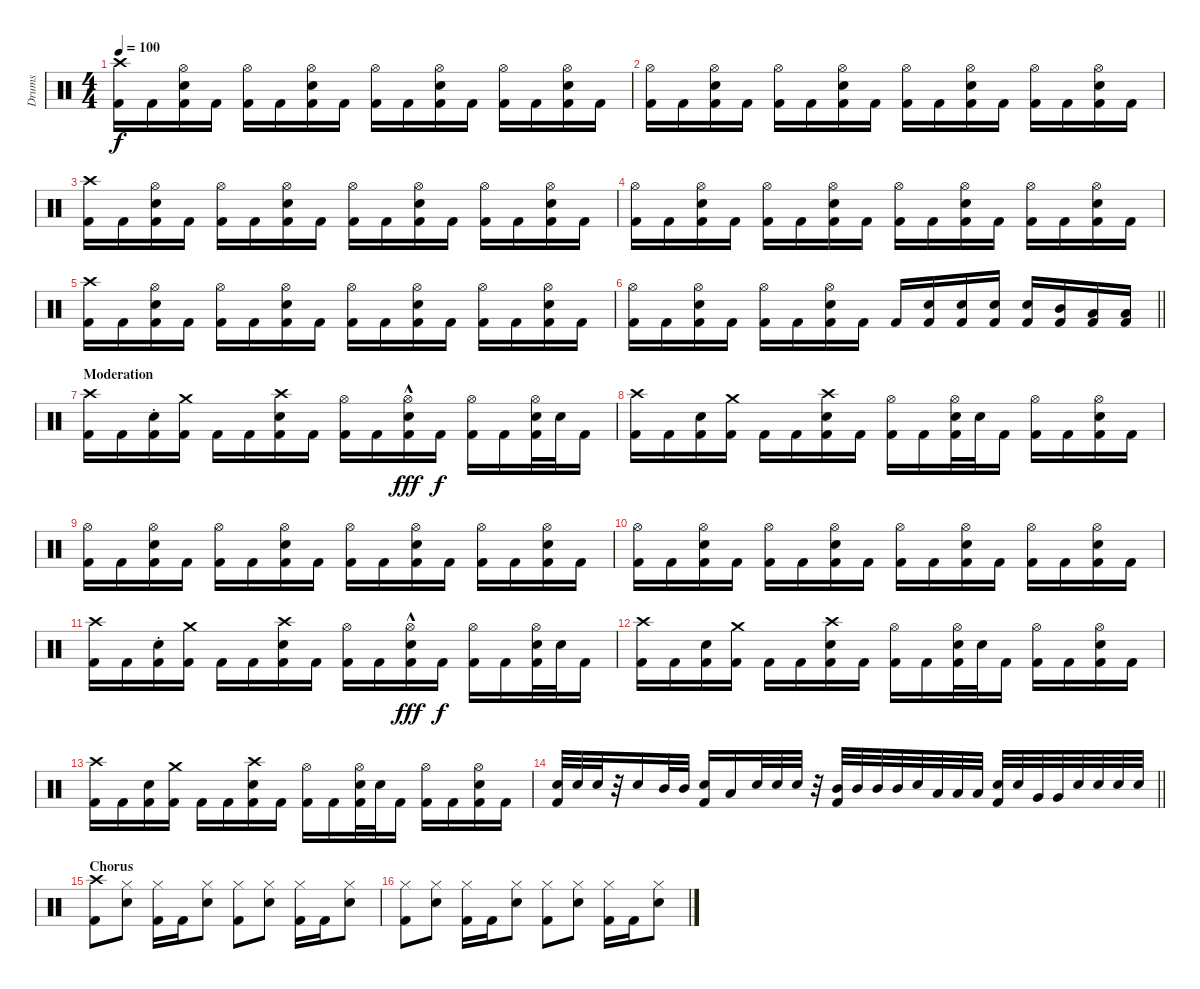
\track ("Drums" "Drums") {instrument percussion}
\staff {score}
\articulation defaults
\ts (4 4)
\tempo 100
\clef neutral
\ks c
("Crash high (hit)" "Kick (hit) 2").16{dy f} "Kick (hit) 2".16 ("Hi-Hat (open)" "Snare (hit) 2" "Kick (hit) 2").16 "Kick (hit) 2".16 ("Hi-Hat (open)" "Kick (hit) 2").16 "Kick (hit) 2".16 ("Hi-Hat (open)" "Snare (hit) 2" "Kick (hit) 2").16 "Kick (hit) 2".16 ("Hi-Hat (open)" "Kick (hit) 2").16 "Kick (hit) 2".16 ("Hi-Hat (open)" "Snare (hit) 2" "Kick (hit) 2").16 "Kick (hit) 2".16 ("Hi-Hat (open)" "Kick (hit) 2").16 "Kick (hit) 2".16 ("Hi-Hat (open)" "Snare (hit) 2" "Kick (hit) 2").16 "Kick (hit) 2".16 |
("Hi-Hat (open)" "Kick (hit) 2").16 "Kick (hit) 2".16 ("Hi-Hat (open)" "Snare (hit) 2" "Kick (hit) 2").16 "Kick (hit) 2".16 ("Hi-Hat (open)" "Kick (hit) 2").16 "Kick (hit) 2".16 ("Hi-Hat (open)" "Snare (hit) 2" "Kick (hit) 2").16 "Kick (hit) 2".16 ("Hi-Hat (open)" "Kick (hit) 2").16 "Kick (hit) 2".16 ("Hi-Hat (open)" "Snare (hit) 2" "Kick (hit) 2").16 "Kick (hit) 2".16 ("Hi-Hat (open)" "Kick (hit) 2").16 "Kick (hit) 2".16 ("Hi-Hat (open)" "Snare (hit) 2" "Kick (hit) 2").16 "Kick (hit) 2".16 |
("Crash high (hit)" "Kick (hit) 2").16 "Kick (hit) 2".16 ("Hi-Hat (open)" "Snare (hit) 2" "Kick (hit) 2").16 "Kick (hit) 2".16 ("Hi-Hat (open)" "Kick (hit) 2").16 "Kick (hit) 2".16 ("Hi-Hat (open)" "Snare (hit) 2" "Kick (hit) 2").16 "Kick (hit) 2".16 ("Hi-Hat (open)" "Kick (hit) 2").16 "Kick (hit) 2".16 ("Hi-Hat (open)" "Snare (hit) 2" "Kick (hit) 2").16 "Kick (hit) 2".16 ("Hi-Hat (open)" "Kick (hit) 2").16 "Kick (hit) 2".16 ("Hi-Hat (open)" "Snare (hit) 2" "Kick (hit) 2").16 "Kick (hit) 2".16 |
("Hi-Hat (open)" "Kick (hit) 2").16 "Kick (hit) 2".16 ("Hi-Hat (open)" "Snare (hit) 2" "Kick (hit) 2").16 "Kick (hit) 2".16 ("Hi-Hat (open)" "Kick (hit) 2").16 "Kick (hit) 2".16 ("Hi-Hat (open)" "Snare (hit) 2" "Kick (hit) 2").16 "Kick (hit) 2".16 ("Hi-Hat (open)" "Kick (hit) 2").16 "Kick (hit) 2".16 ("Hi-Hat (open)" "Snare (hit) 2" "Kick (hit) 2").16 "Kick (hit) 2".16 ("Hi-Hat (open)" "Kick (hit) 2").16 "Kick (hit) 2".16 ("Hi-Hat (open)" "Snare (hit) 2" "Kick (hit) 2").16 "Kick (hit) 2".16 |
("Crash high (hit)" "Kick (hit) 2").16 "Kick (hit) 2".16 ("Hi-Hat (open)" "Snare (hit) 2" "Kick (hit) 2").16 "Kick (hit) 2".16 ("Hi-Hat (open)" "Kick (hit) 2").16 "Kick (hit) 2".16 ("Hi-Hat (open)" "Snare (hit) 2" "Kick (hit) 2").16 "Kick (hit) 2".16 ("Hi-Hat (open)" "Kick (hit) 2").16 "Kick (hit) 2".16 ("Hi-Hat (open)" "Snare (hit) 2" "Kick (hit) 2").16 "Kick (hit) 2".16 ("Hi-Hat (open)" "Kick (hit) 2").16 "Kick (hit) 2".16 ("Hi-Hat (open)" "Snare (hit) 2" "Kick (hit) 2").16 "Kick (hit) 2".16 |
\barLineRight lightlight
("Hi-Hat (open)" "Kick (hit) 2").16 "Kick (hit) 2".16 ("Hi-Hat (open)" "Snare (hit) 2" "Kick (hit) 2").16 "Kick (hit) 2".16 ("Hi-Hat (open)" "Kick (hit) 2").16 "Kick (hit) 2".16 ("Hi-Hat (open)" "Snare (hit) 2" "Kick (hit) 2").16 "Kick (hit) 2".16 "Kick (hit) 2".16 ("Snare (hit) 2" "Kick (hit) 2").16 ("Snare (hit) 2" "Kick (hit) 2").16 ("Snare (hit) 2" "Kick (hit) 2").16 ("Snare (hit) 2" "Kick (hit) 2").16 ("Kick (hit) 2" "Mid Tom (hit)").16 ("Kick (hit) 2" "Low Tom (hit)").16 ("Kick (hit) 2" "Low Tom (hit)").16 |
\section ("" "Moderation")
("Crash high (hit)" "Kick (hit) 2").16 "Kick (hit) 2".16 ("Snare (hit) 2"{st} "Kick (hit) 2").16 ("Crash medium (hit)" "Kick (hit) 2").16 "Kick (hit) 2".16 "Kick (hit) 2".16 ("Crash high (hit)" "Snare (hit) 2" "Kick (hit) 2").16 "Kick (hit) 2".16 ("Hi-Hat (open)" "Kick (hit) 2").16 "Kick (hit) 2".16 ("Hi-Hat (open)" "Snare (hit) 2"{hac} "Kick (hit) 2").16{dy fff} "Kick (hit) 2".16{dy f} ("Hi-Hat (open)" "Kick (hit) 2").16 "Kick (hit) 2".16 ("Hi-Hat (open)" "Snare (hit) 2" "Kick (hit) 2").32 "Snare (hit) 2".32 "Kick (hit) 2".16 |
("Crash high (hit)" "Kick (hit) 2").16 "Kick (hit) 2".16 ("Snare (hit) 2" "Kick (hit) 2").16 ("Crash medium (hit)" "Kick (hit) 2").16 "Kick (hit) 2".16 "Kick (hit) 2".16 ("Crash high (hit)" "Snare (hit) 2" "Kick (hit) 2").16 "Kick (hit) 2".16 ("Hi-Hat (open)" "Kick (hit) 2").16 "Kick (hit) 2".16 ("Hi-Hat (open)" "Snare (hit) 2" "Kick (hit) 2").32 "Snare (hit) 2".32 "Kick (hit) 2".16 ("Hi-Hat (open)" "Kick (hit) 2").16 "Kick (hit) 2".16 ("Hi-Hat (open)" "Snare (hit) 2" "Kick (hit) 2").16 "Kick (hit) 2".16 |
("Hi-Hat (open)" "Kick (hit) 2").16 "Kick (hit) 2".16 ("Hi-Hat (open)" "Snare (hit) 2" "Kick (hit) 2").16 "Kick (hit) 2".16 ("Hi-Hat (open)" "Kick (hit) 2").16 "Kick (hit) 2".16 ("Hi-Hat (open)" "Snare (hit) 2" "Kick (hit) 2").16 "Kick (hit) 2".16 ("Hi-Hat (open)" "Kick (hit) 2").16 "Kick (hit) 2".16 ("Hi-Hat (open)" "Snare (hit) 2" "Kick (hit) 2").16 "Kick (hit) 2".16 ("Hi-Hat (open)" "Kick (hit) 2").16 "Kick (hit) 2".16 ("Hi-Hat (open)" "Snare (hit) 2" "Kick (hit) 2").16 "Kick (hit) 2".16 |
("Hi-Hat (open)" "Kick (hit) 2").16 "Kick (hit) 2".16 ("Hi-Hat (open)" "Snare (hit) 2" "Kick (hit) 2").16 "Kick (hit) 2".16 ("Hi-Hat (open)" "Kick (hit) 2").16 "Kick (hit) 2".16 ("Hi-Hat (open)" "Snare (hit) 2" "Kick (hit) 2").16 "Kick (hit) 2".16 ("Hi-Hat (open)" "Kick (hit) 2").16 "Kick (hit) 2".16 ("Hi-Hat (open)" "Snare (hit) 2" "Kick (hit) 2").16 "Kick (hit) 2".16 ("Hi-Hat (open)" "Kick (hit) 2").16 "Kick (hit) 2".16 ("Hi-Hat (open)" "Snare (hit) 2" "Kick (hit) 2").16 "Kick (hit) 2".16 |
("Crash high (hit)" "Kick (hit) 2").16 "Kick (hit) 2".16 ("Snare (hit) 2"{st} "Kick (hit) 2").16 ("Crash medium (hit)" "Kick (hit) 2").16 "Kick (hit) 2".16 "Kick (hit) 2".16 ("Crash high (hit)" "Snare (hit) 2" "Kick (hit) 2").16 "Kick (hit) 2".16 ("Hi-Hat (open)" "Kick (hit) 2").16 "Kick (hit) 2".16 ("Hi-Hat (open)" "Snare (hit) 2"{hac} "Kick (hit) 2").16{dy fff} "Kick (hit) 2".16{dy f} ("Hi-Hat (open)" "Kick (hit) 2").16 "Kick (hit) 2".16 ("Hi-Hat (open)" "Snare (hit) 2" "Kick (hit) 2").32 "Snare (hit) 2".32 "Kick (hit) 2".16 |
("Crash high (hit)" "Kick (hit) 2").16 "Kick (hit) 2".16 ("Snare (hit) 2" "Kick (hit) 2").16 ("Crash medium (hit)" "Kick (hit) 2").16 "Kick (hit) 2".16 "Kick (hit) 2".16 ("Crash high (hit)" "Snare (hit) 2" "Kick (hit) 2").16 "Kick (hit) 2".16 ("Hi-Hat (open)" "Kick (hit) 2").16 "Kick (hit) 2".16 ("Hi-Hat (open)" "Snare (hit) 2" "Kick (hit) 2").32 "Snare (hit) 2".32 "Kick (hit) 2".16 ("Hi-Hat (open)" "Kick (hit) 2").16 "Kick (hit) 2".16 ("Hi-Hat (open)" "Snare (hit) 2" "Kick (hit) 2").16 "Kick (hit) 2".16 |
("Crash high (hit)" "Kick (hit) 2").16 "Kick (hit) 2".16 ("Snare (hit) 2" "Kick (hit) 2").16 ("Crash medium (hit)" "Kick (hit) 2").16 "Kick (hit) 2".16 "Kick (hit) 2".16 ("Crash high (hit)" "Snare (hit) 2" "Kick (hit) 2").16 "Kick (hit) 2".16 ("Hi-Hat (open)" "Kick (hit) 2").16 "Kick (hit) 2".16 ("Hi-Hat (open)" "Snare (hit) 2" "Kick (hit) 2").32 "Snare (hit) 2".32 "Kick (hit) 2".16 ("Hi-Hat (open)" "Kick (hit) 2").16 "Kick (hit) 2".16 ("Hi-Hat (open)" "Snare (hit) 2" "Kick (hit) 2").16 "Kick (hit) 2".16 |
\barLineRight lightlight
("Snare (hit) 2" "Kick (hit) 2").32 "Snare (hit) 2".32 "Snare (hit) 2".32 r.32 "Snare (hit) 2".16 "Mid Tom (hit)".32 "Mid Tom (hit)".32 ("Snare (hit) 2" "Kick (hit) 2").16 "Low Tom (hit)".16 "Snare (hit) 2".32 "Snare (hit) 2".32 "Snare (hit) 2".32 r.32 ("Kick (hit) 2" "Mid Tom (hit)").32 "Mid Tom (hit)".32 "Mid Tom (hit)".32 "Mid Tom (hit)".32 "Snare (hit) 2".32 "Low Tom (hit)".32 "Low Tom (hit)".32 "Low Tom (hit)".32 ("Snare (hit) 2" "Kick (hit) 2").32 "Snare (hit) 2".32 "Very Low Tom (hit)".32 "Very Low Tom (hit)".32 "Snare (hit) 2".32 "Snare (hit) 2".32 "Snare (hit) 2".32 "Snare (hit) 2".32 |
\section ("" "Chorus")
("Crash high (hit)" "Kick (hit) 2").8 ("Hi-Hat (closed)" "Snare (hit) 2").8 ("Hi-Hat (closed)" "Kick (hit) 2").16 "Kick (hit) 2".16 ("Hi-Hat (closed)" "Snare (hit) 2").8 ("Hi-Hat (closed)" "Kick (hit) 2").8 ("Hi-Hat (closed)" "Snare (hit) 2").8 ("Hi-Hat (closed)" "Kick (hit) 2").16 "Kick (hit) 2".16 ("Hi-Hat (closed)" "Snare (hit) 2").8 |
("Hi-Hat (closed)" "Kick (hit) 2").8 ("Hi-Hat (closed)" "Snare (hit) 2").8 ("Hi-Hat (closed)" "Kick (hit) 2").16 "Kick (hit) 2".16 ("Hi-Hat (closed)" "Snare (hit) 2").8 ("Hi-Hat (closed)" "Kick (hit) 2").8 ("Hi-Hat (closed)" "Snare (hit) 2").8 ("Hi-Hat (closed)" "Kick (hit) 2").16 "Kick (hit) 2".16 ("Hi-Hat (closed)" "Snare (hit) 2").8
